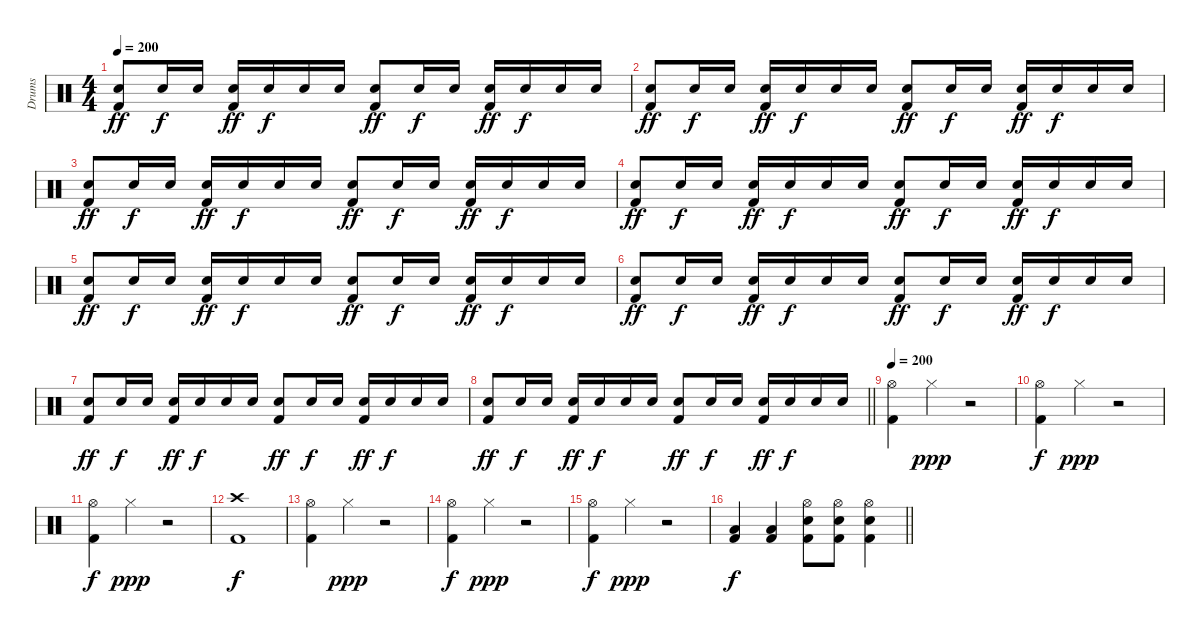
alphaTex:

\track ("Drums" "Drums") {instrument percussion}
\staff {score}
\articulation defaults
\ts (4 4)
\section ("" "")
\tempo 200
\clef neutral
\ks c
("Kick (hit) 2" "Snare (hit) 2").8{dy ff} "Snare (hit) 2".16{dy f} "Snare (hit) 2".16 ("Kick (hit) 2" "Snare (hit) 2").16{dy ff} "Snare (hit) 2".16{dy f} "Snare (hit) 2".16 "Snare (hit) 2".16 ("Kick (hit) 2" "Snare (hit) 2").8{dy ff} "Snare (hit) 2".16{dy f} "Snare (hit) 2".16 ("Kick (hit) 2" "Snare (hit) 2").16{dy ff} "Snare (hit) 2".16{dy f} "Snare (hit) 2".16 "Snare (hit) 2".16 |
("Kick (hit) 2" "Snare (hit) 2").8{dy ff} "Snare (hit) 2".16{dy f} "Snare (hit) 2".16 ("Kick (hit) 2" "Snare (hit) 2").16{dy ff} "Snare (hit) 2".16{dy f} "Snare (hit) 2".16 "Snare (hit) 2".16 ("Kick (hit) 2" "Snare (hit) 2").8{dy ff} "Snare (hit) 2".16{dy f} "Snare (hit) 2".16 ("Kick (hit) 2" "Snare (hit) 2").16{dy ff} "Snare (hit) 2".16{dy f} "Snare (hit) 2".16 "Snare (hit) 2".16 |
("Kick (hit) 2" "Snare (hit) 2").8{dy ff} "Snare (hit) 2".16{dy f} "Snare (hit) 2".16 ("Kick (hit) 2" "Snare (hit) 2").16{dy ff} "Snare (hit) 2".16{dy f} "Snare (hit) 2".16 "Snare (hit) 2".16 ("Kick (hit) 2" "Snare (hit) 2").8{dy ff} "Snare (hit) 2".16{dy f} "Snare (hit) 2".16 ("Kick (hit) 2" "Snare (hit) 2").16{dy ff} "Snare (hit) 2".16{dy f} "Snare (hit) 2".16 "Snare (hit) 2".16 |
("Kick (hit) 2" "Snare (hit) 2").8{dy ff} "Snare (hit) 2".16{dy f} "Snare (hit) 2".16 ("Kick (hit) 2" "Snare (hit) 2").16{dy ff} "Snare (hit) 2".16{dy f} "Snare (hit) 2".16 "Snare (hit) 2".16 ("Kick (hit) 2" "Snare (hit) 2").8{dy ff} "Snare (hit) 2".16{dy f} "Snare (hit) 2".16 ("Kick (hit) 2" "Snare (hit) 2").16{dy ff} "Snare (hit) 2".16{dy f} "Snare (hit) 2".16 "Snare (hit) 2".16 |
("Kick (hit) 2" "Snare (hit) 2").8{dy ff} "Snare (hit) 2".16{dy f} "Snare (hit) 2".16 ("Kick (hit) 2" "Snare (hit) 2").16{dy ff} "Snare (hit) 2".16{dy f} "Snare (hit) 2".16 "Snare (hit) 2".16 ("Kick (hit) 2" "Snare (hit) 2").8{dy ff} "Snare (hit) 2".16{dy f} "Snare (hit) 2".16 ("Kick (hit) 2" "Snare (hit) 2").16{dy ff} "Snare (hit) 2".16{dy f} "Snare (hit) 2".16 "Snare (hit) 2".16 |
("Kick (hit) 2" "Snare (hit) 2").8{dy ff} "Snare (hit) 2".16{dy f} "Snare (hit) 2".16 ("Kick (hit) 2" "Snare (hit) 2").16{dy ff} "Snare (hit) 2".16{dy f} "Snare (hit) 2".16 "Snare (hit) 2".16 ("Kick (hit) 2" "Snare (hit) 2").8{dy ff} "Snare (hit) 2".16{dy f} "Snare (hit) 2".16 ("Kick (hit) 2" "Snare (hit) 2").16{dy ff} "Snare (hit) 2".16{dy f} "Snare (hit) 2".16 "Snare (hit) 2".16 |
("Kick (hit) 2" "Snare (hit) 2").8{dy ff} "Snare (hit) 2".16{dy f} "Snare (hit) 2".16 ("Kick (hit) 2" "Snare (hit) 2").16{dy ff} "Snare (hit) 2".16{dy f} "Snare (hit) 2".16 "Snare (hit) 2".16 ("Kick (hit) 2" "Snare (hit) 2").8{dy ff} "Snare (hit) 2".16{dy f} "Snare (hit) 2".16 ("Kick (hit) 2" "Snare (hit) 2").16{dy ff} "Snare (hit) 2".16{dy f} "Snare (hit) 2".16 "Snare (hit) 2".16 |
\barLineRight lightlight
("Kick (hit) 2" "Snare (hit) 2").8{dy ff} "Snare (hit) 2".16{dy f} "Snare (hit) 2".16 ("Kick (hit) 2" "Snare (hit) 2").16{dy ff} "Snare (hit) 2".16{dy f} "Snare (hit) 2".16 "Snare (hit) 2".16 ("Kick (hit) 2" "Snare (hit) 2").8{dy ff} "Snare (hit) 2".16{dy f} "Snare (hit) 2".16 ("Kick (hit) 2" "Snare (hit) 2").16{dy ff} "Snare (hit) 2".16{dy f} "Snare (hit) 2".16 "Snare (hit) 2".16 |
\section ("" "")
\tempo 200
("Kick (hit) 2" "Hi-Hat (open)").4 "Hi-Hat (closed)".4{dy ppp} r.2 |
("Kick (hit) 2" "Hi-Hat (open)").4{dy f} "Hi-Hat (closed)".4{dy ppp} r.2 |
("Kick (hit) 2" "Hi-Hat (open)").4{dy f} "Hi-Hat (closed)".4{dy ppp} r.2 |
("Kick (hit) 2" "Crash high (hit)").1{dy f} |
("Kick (hit) 2" "Hi-Hat (open)").4 "Hi-Hat (closed)".4{dy ppp} r.2 |
("Kick (hit) 2" "Hi-Hat (open)").4{dy f} "Hi-Hat (closed)".4{dy ppp} r.2 |
("Kick (hit) 2" "Hi-Hat (open)").4{dy f} "Hi-Hat (closed)".4{dy ppp} r.2 |
\barLineRight lightlight
("Kick (hit) 2" "Low Tom (hit)").4{dy f} ("Kick (hit) 2" "Low Floor Tom (hit)").4 ("Kick (hit) 2" "Snare (hit) 2" "Hi-Hat (open)").8 ("Kick (hit) 2" "Snare (hit) 2" "Hi-Hat (open)").8 ("Kick (hit) 2" "Snare (hit) 2" "Hi-Hat (open)").4
